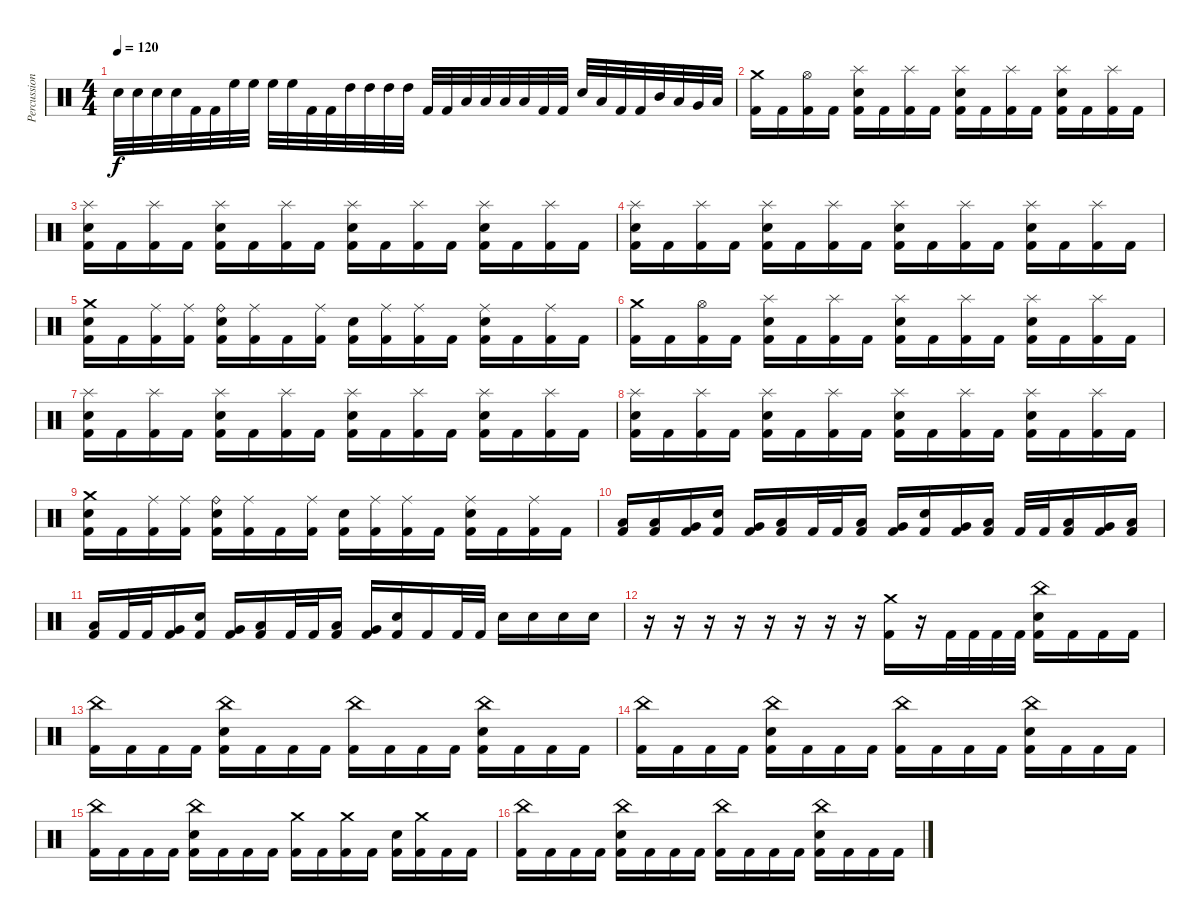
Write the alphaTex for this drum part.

\track ("Percussion" "Percussion") {instrument percussion}
\staff {score}
\articulation defaults
\ts (4 4)
\tempo 120
\clef neutral
\ks c "Electric Snare (hit)".32{dy f} "Electric Snare (hit)".32 "Electric Snare (hit)".32 "Electric Snare (hit)".32 "Kick (hit) 2".32 "Kick (hit) 2".32 "High Floor Tom (hit)".32 "High Floor Tom (hit)".32 "High Floor Tom (hit)".32 "High Floor Tom (hit)".32 "Kick (hit) 2".32 "Kick (hit) 2".32 "High Tom (hit)".32 "High Tom (hit)".32 "High Tom (hit)".32 "High Tom (hit)".32 "Kick (hit) 2".32 "Kick (hit) 2".32 "Low Tom (hit)".32 "Low Tom (hit)".32 "Low Tom (hit)".32 "Low Tom (hit)".32 "Kick (hit) 2".32 "Kick (hit) 2".32 "Electric Snare (hit)".32 "Low Floor Tom (hit)".32 "Kick (hit) 2".32 "Kick (hit) 2".32 "Mid Tom (hit)".32 "Low Tom (hit)".32 "Very Low Tom (hit)".32 "Low Floor Tom (hit)".32
|
("Crash medium (hit)" "Kick (hit) 2").16 "Kick (hit) 2".16 ("Hi-Hat (open)" "Kick (hit) 2").16 "Kick (hit) 2".16 ("Splash (hit)" "Electric Snare (hit)" "Kick (hit) 2").16 "Kick (hit) 2".16 ("Splash (hit)" "Kick (hit) 2").16 "Kick (hit) 2".16 ("Splash (hit)" "Electric Snare (hit)" "Kick (hit) 2").16 "Kick (hit) 2".16 ("Splash (hit)" "Kick (hit) 2").16 "Kick (hit) 2".16 ("Splash (hit)" "Electric Snare (hit)" "Kick (hit) 2").16 "Kick (hit) 2".16 ("Splash (hit)" "Kick (hit) 2").16 "Kick (hit) 2".16 |
("Splash (hit)" "Electric Snare (hit)" "Kick (hit) 2").16 "Kick (hit) 2".16 ("Splash (hit)" "Kick (hit) 2").16 "Kick (hit) 2".16 ("Splash (hit)" "Electric Snare (hit)" "Kick (hit) 2").16 "Kick (hit) 2".16 ("Splash (hit)" "Kick (hit) 2").16 "Kick (hit) 2".16 ("Splash (hit)" "Electric Snare (hit)" "Kick (hit) 2").16 "Kick (hit) 2".16 ("Splash (hit)" "Kick (hit) 2").16 "Kick (hit) 2".16 ("Splash (hit)" "Electric Snare (hit)" "Kick (hit) 2").16 "Kick (hit) 2".16 ("Splash (hit)" "Kick (hit) 2").16 "Kick (hit) 2".16 |
("Splash (hit)" "Electric Snare (hit)" "Kick (hit) 2").16 "Kick (hit) 2".16 ("Splash (hit)" "Kick (hit) 2").16 "Kick (hit) 2".16 ("Splash (hit)" "Electric Snare (hit)" "Kick (hit) 2").16 "Kick (hit) 2".16 ("Splash (hit)" "Kick (hit) 2").16 "Kick (hit) 2".16 ("Splash (hit)" "Electric Snare (hit)" "Kick (hit) 2").16 "Kick (hit) 2".16 ("Splash (hit)" "Kick (hit) 2").16 "Kick (hit) 2".16 ("Splash (hit)" "Electric Snare (hit)" "Kick (hit) 2").16 "Kick (hit) 2".16 ("Splash (hit)" "Kick (hit) 2").16 "Kick (hit) 2".16 |
("Crash medium (hit)" "Electric Snare (hit)" "Kick (hit) 2").16 "Kick (hit) 2".16 ("Ride (middle)" "Kick (hit) 2").16 ("Ride (middle)" "Kick (hit) 2").16 ("Ride (bell)" "Electric Snare (hit)" "Kick (hit) 2").16 ("Ride (middle)" "Kick (hit) 2").16 "Kick (hit) 2".16 ("Ride (middle)" "Kick (hit) 2").16 ("Electric Snare (hit)" "Kick (hit) 2").16 ("Ride (middle)" "Kick (hit) 2").16 ("Ride (middle)" "Kick (hit) 2").16 "Kick (hit) 2".16 ("Ride (middle)" "Electric Snare (hit)" "Kick (hit) 2").16 "Kick (hit) 2".16 ("Ride (middle)" "Kick (hit) 2").16 "Kick (hit) 2".16 |
("Crash medium (hit)" "Kick (hit) 2").16 "Kick (hit) 2".16 ("Hi-Hat (open)" "Kick (hit) 2").16 "Kick (hit) 2".16 ("Splash (hit)" "Electric Snare (hit)" "Kick (hit) 2").16 "Kick (hit) 2".16 ("Splash (hit)" "Kick (hit) 2").16 "Kick (hit) 2".16 ("Splash (hit)" "Electric Snare (hit)" "Kick (hit) 2").16 "Kick (hit) 2".16 ("Splash (hit)" "Kick (hit) 2").16 "Kick (hit) 2".16 ("Splash (hit)" "Electric Snare (hit)" "Kick (hit) 2").16 "Kick (hit) 2".16 ("Splash (hit)" "Kick (hit) 2").16 "Kick (hit) 2".16 |
("Splash (hit)" "Electric Snare (hit)" "Kick (hit) 2").16 "Kick (hit) 2".16 ("Splash (hit)" "Kick (hit) 2").16 "Kick (hit) 2".16 ("Splash (hit)" "Electric Snare (hit)" "Kick (hit) 2").16 "Kick (hit) 2".16 ("Splash (hit)" "Kick (hit) 2").16 "Kick (hit) 2".16 ("Splash (hit)" "Electric Snare (hit)" "Kick (hit) 2").16 "Kick (hit) 2".16 ("Splash (hit)" "Kick (hit) 2").16 "Kick (hit) 2".16 ("Splash (hit)" "Electric Snare (hit)" "Kick (hit) 2").16 "Kick (hit) 2".16 ("Splash (hit)" "Kick (hit) 2").16 "Kick (hit) 2".16 |
("Splash (hit)" "Electric Snare (hit)" "Kick (hit) 2").16 "Kick (hit) 2".16 ("Splash (hit)" "Kick (hit) 2").16 "Kick (hit) 2".16 ("Splash (hit)" "Electric Snare (hit)" "Kick (hit) 2").16 "Kick (hit) 2".16 ("Splash (hit)" "Kick (hit) 2").16 "Kick (hit) 2".16 ("Splash (hit)" "Electric Snare (hit)" "Kick (hit) 2").16 "Kick (hit) 2".16 ("Splash (hit)" "Kick (hit) 2").16 "Kick (hit) 2".16 ("Splash (hit)" "Electric Snare (hit)" "Kick (hit) 2").16 "Kick (hit) 2".16 ("Splash (hit)" "Kick (hit) 2").16 "Kick (hit) 2".16 |
("Crash medium (hit)" "Electric Snare (hit)" "Kick (hit) 2").16 "Kick (hit) 2".16 ("Ride (middle)" "Kick (hit) 2").16 ("Ride (middle)" "Kick (hit) 2").16 ("Ride (bell)" "Electric Snare (hit)" "Kick (hit) 2").16 ("Ride (middle)" "Kick (hit) 2").16 "Kick (hit) 2".16 ("Ride (middle)" "Kick (hit) 2").16 ("Electric Snare (hit)" "Kick (hit) 2").16 ("Ride (middle)" "Kick (hit) 2").16 ("Ride (middle)" "Kick (hit) 2").16 "Kick (hit) 2".16 ("Ride (middle)" "Electric Snare (hit)" "Kick (hit) 2").16 "Kick (hit) 2".16 ("Ride (middle)" "Kick (hit) 2").16 "Kick (hit) 2".16 |
("Low Tom (hit)" "Kick (hit) 2").16 ("Low Floor Tom (hit)" "Kick (hit) 2").16 ("Very Low Tom (hit)" "Kick (hit) 2").16 ("Electric Snare (hit)" "Kick (hit) 2").16 ("Very Low Tom (hit)" "Kick (hit) 2").16 ("Low Floor Tom (hit)" "Kick (hit) 2").16 "Kick (hit) 2".32 "Kick (hit) 2".32 ("Low Tom (hit)" "Kick (hit) 2").16 ("Very Low Tom (hit)" "Kick (hit) 2").16 ("Electric Snare (hit)" "Kick (hit) 2").16 ("Very Low Tom (hit)" "Kick (hit) 2").16 ("Low Floor Tom (hit)" "Kick (hit) 2").16 "Kick (hit) 2".32 "Kick (hit) 2".32 ("Low Floor Tom (hit)" "Kick (hit) 2").16 ("Very Low Tom (hit)" "Kick (hit) 2").16 ("Low Floor Tom (hit)" "Kick (hit) 2").16 |
("Low Tom (hit)" "Kick (hit) 2").16 "Kick (hit) 2".32 "Kick (hit) 2".32 ("Very Low Tom (hit)" "Kick (hit) 2").16 ("Electric Snare (hit)" "Kick (hit) 2").16 ("Very Low Tom (hit)" "Kick (hit) 2").16 ("Low Floor Tom (hit)" "Kick (hit) 2").16 "Kick (hit) 2".32 "Kick (hit) 2".32 ("Low Tom (hit)" "Kick (hit) 2").16 ("Very Low Tom (hit)" "Kick (hit) 2").16 ("Electric Snare (hit)" "Kick (hit) 2").16 "Kick (hit) 2".16 "Kick (hit) 2".32 "Kick (hit) 2".32 "Electric Snare (hit)".16 "Electric Snare (hit)".16 "Electric Snare (hit)".16 "Electric Snare (hit)".16 |
r.16 r.16 r.16 r.16 r.16 r.16 r.16 r.16 ("Crash medium (hit)" "Kick (hit) 2").16 r.16 "Kick (hit) 2".32 "Kick (hit) 2".32 "Kick (hit) 2".32 "Kick (hit) 2".32 ("China (hit)" "Electric Snare (hit)" "Kick (hit) 2").16 "Kick (hit) 2".16 "Kick (hit) 2".16 "Kick (hit) 2".16 |
("China (hit)" "Kick (hit) 2").16 "Kick (hit) 2".16 "Kick (hit) 2".16 "Kick (hit) 2".16 ("China (hit)" "Electric Snare (hit)" "Kick (hit) 2").16 "Kick (hit) 2".16 "Kick (hit) 2".16 "Kick (hit) 2".16 ("China (hit)" "Kick (hit) 2").16 "Kick (hit) 2".16 "Kick (hit) 2".16 "Kick (hit) 2".16 ("China (hit)" "Electric Snare (hit)" "Kick (hit) 2").16 "Kick (hit) 2".16 "Kick (hit) 2".16 "Kick (hit) 2".16 |
("China (hit)" "Kick (hit) 2").16 "Kick (hit) 2".16 "Kick (hit) 2".16 "Kick (hit) 2".16 ("China (hit)" "Electric Snare (hit)" "Kick (hit) 2").16 "Kick (hit) 2".16 "Kick (hit) 2".16 "Kick (hit) 2".16 ("China (hit)" "Kick (hit) 2").16 "Kick (hit) 2".16 "Kick (hit) 2".16 "Kick (hit) 2".16 ("China (hit)" "Electric Snare (hit)" "Kick (hit) 2").16 "Kick (hit) 2".16 "Kick (hit) 2".16 "Kick (hit) 2".16 |
("China (hit)" "Kick (hit) 2").16 "Kick (hit) 2".16 "Kick (hit) 2".16 "Kick (hit) 2".16 ("China (hit)" "Electric Snare (hit)" "Kick (hit) 2").16 "Kick (hit) 2".16 "Kick (hit) 2".16 "Kick (hit) 2".16 ("Crash medium (hit)" "Kick (hit) 2").16 "Kick (hit) 2".16 ("Crash medium (hit)" "Kick (hit) 2").16 "Kick (hit) 2".16 ("Electric Snare (hit)" "Kick (hit) 2").16 ("Crash medium (hit)" "Kick (hit) 2").16 "Kick (hit) 2".16 "Kick (hit) 2".16 |
("China (hit)" "Kick (hit) 2").16 "Kick (hit) 2".16 "Kick (hit) 2".16 "Kick (hit) 2".16 ("China (hit)" "Electric Snare (hit)" "Kick (hit) 2").16 "Kick (hit) 2".16 "Kick (hit) 2".16 "Kick (hit) 2".16 ("China (hit)" "Kick (hit) 2").16 "Kick (hit) 2".16 "Kick (hit) 2".16 "Kick (hit) 2".16 ("China (hit)" "Electric Snare (hit)" "Kick (hit) 2").16 "Kick (hit) 2".16 "Kick (hit) 2".16 "Kick (hit) 2".16
